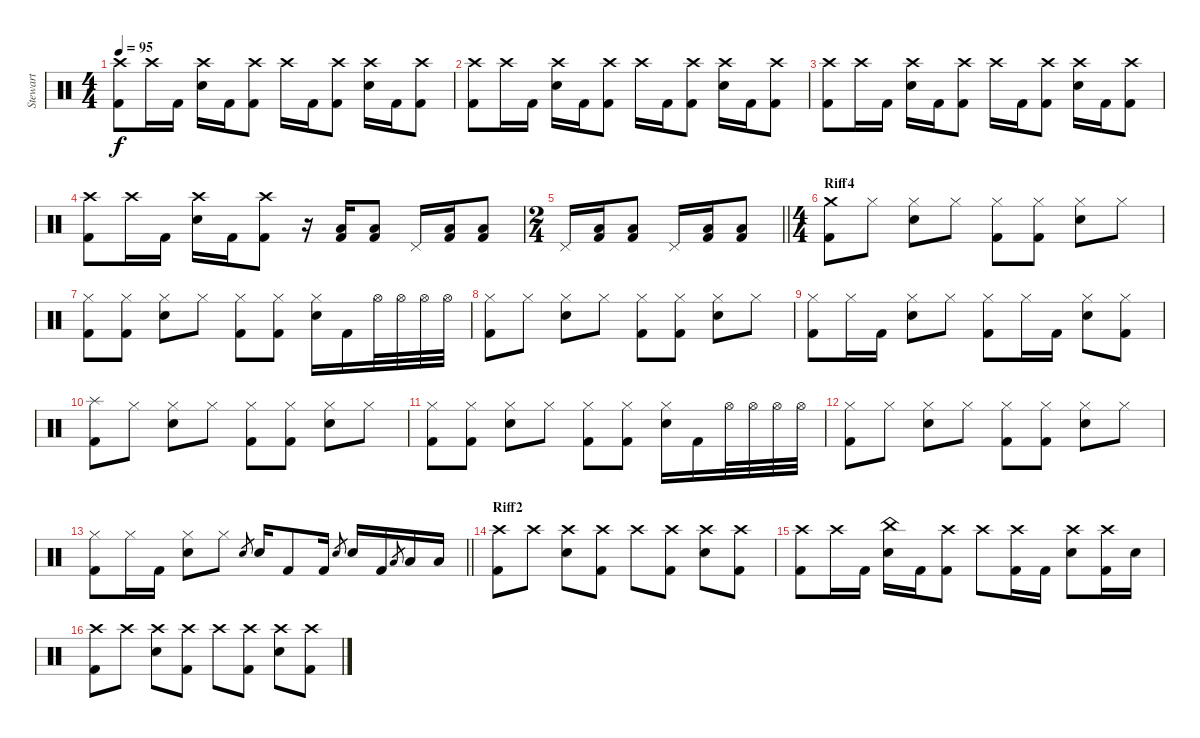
\track ("Stewart" "Stewart") {instrument percussion}
\staff {score}
\articulation defaults
\ts (4 4)
\tempo 95
\clef neutral
\ks c
("Crash high (hit)" "Kick (hit) 2").8{dy f} "Crash high (hit)".16 "Kick (hit) 2".16 ("Crash high (hit)" "Electric Snare (hit)").16 "Kick (hit) 2".16 ("Crash high (hit)" "Kick (hit) 2").8 "Crash high (hit)".16 "Kick (hit) 2".16 ("Crash high (hit)" "Kick (hit) 2").8 ("Crash high (hit)" "Electric Snare (hit)").16 "Kick (hit) 2".16 ("Crash high (hit)" "Kick (hit) 2").8 |
("Crash high (hit)" "Kick (hit) 2").8 "Crash high (hit)".16 "Kick (hit) 2".16 ("Crash high (hit)" "Electric Snare (hit)").16 "Kick (hit) 2".16 ("Crash high (hit)" "Kick (hit) 2").8 "Crash high (hit)".16 "Kick (hit) 2".16 ("Crash high (hit)" "Kick (hit) 2").8 ("Crash high (hit)" "Electric Snare (hit)").16 "Kick (hit) 2".16 ("Crash high (hit)" "Kick (hit) 2").8 |
("Crash high (hit)" "Kick (hit) 2").8 "Crash high (hit)".16 "Kick (hit) 2".16 ("Crash high (hit)" "Electric Snare (hit)").16 "Kick (hit) 2".16 ("Crash high (hit)" "Kick (hit) 2").8 "Crash high (hit)".16 "Kick (hit) 2".16 ("Crash high (hit)" "Kick (hit) 2").8 ("Crash high (hit)" "Electric Snare (hit)").16 "Kick (hit) 2".16 ("Crash high (hit)" "Kick (hit) 2").8 |
("Crash high (hit)" "Kick (hit) 2").8 "Crash high (hit)".16 "Kick (hit) 2".16 ("Crash high (hit)" "Electric Snare (hit)").16 "Kick (hit) 2".16 ("Crash high (hit)" "Kick (hit) 2").8 r.16 ("Low Tom (hit)" "Kick (hit) 2").16 ("Low Tom (hit)" "Kick (hit) 2").8 "Pedal Hi-Hat (hit)".16 ("Low Tom (hit)" "Kick (hit) 2").16 ("Low Tom (hit)" "Kick (hit) 2").8 |
\ts (2 4)
\barLineRight lightlight "Pedal Hi-Hat (hit)".16
("Low Tom (hit)" "Kick (hit) 2").16 ("Low Tom (hit)" "Kick (hit) 2").8 "Pedal Hi-Hat (hit)".16 ("Low Tom (hit)" "Kick (hit) 2").16 ("Low Tom (hit)" "Kick (hit) 2").8 |
\ts (4 4)
\section ("" "Riff4")
("Crash medium (hit)" "Kick (hit) 2").8 "Hi-Hat (closed)".8 ("Hi-Hat (closed)" "Electric Snare (hit)").8 "Hi-Hat (closed)".8 ("Hi-Hat (closed)" "Kick (hit) 2").8 ("Hi-Hat (closed)" "Kick (hit) 2").8 ("Hi-Hat (closed)" "Electric Snare (hit)").8 "Hi-Hat (closed)".8 |
("Hi-Hat (closed)" "Kick (hit) 2").8 ("Hi-Hat (closed)" "Kick (hit) 2").8 ("Hi-Hat (closed)" "Electric Snare (hit)").8 "Hi-Hat (closed)".8 ("Hi-Hat (closed)" "Kick (hit) 2").8 ("Hi-Hat (closed)" "Kick (hit) 2").8 ("Hi-Hat (closed)" "Electric Snare (hit)").16 "Kick (hit) 2".16 "Hi-Hat (open)".32 "Hi-Hat (open)".32 "Hi-Hat (open)".32 "Hi-Hat (open)".32 |
("Hi-Hat (closed)" "Kick (hit) 2").8 "Hi-Hat (closed)".8 ("Hi-Hat (closed)" "Electric Snare (hit)").8 "Hi-Hat (closed)".8 ("Hi-Hat (closed)" "Kick (hit) 2").8 ("Hi-Hat (closed)" "Kick (hit) 2").8 ("Hi-Hat (closed)" "Electric Snare (hit)").8 "Hi-Hat (closed)".8 |
("Hi-Hat (closed)" "Kick (hit) 2").8 "Hi-Hat (closed)".16 "Kick (hit) 2".16 ("Hi-Hat (closed)" "Electric Snare (hit)").8 "Hi-Hat (closed)".8 ("Hi-Hat (closed)" "Kick (hit) 2").8 "Hi-Hat (closed)".16 "Kick (hit) 2".16 ("Hi-Hat (closed)" "Electric Snare (hit)").8 ("Hi-Hat (closed)" "Kick (hit) 2").8 |
("Splash (hit)" "Kick (hit) 2").8 "Hi-Hat (closed)".8 ("Hi-Hat (closed)" "Electric Snare (hit)").8 "Hi-Hat (closed)".8 ("Hi-Hat (closed)" "Kick (hit) 2").8 ("Hi-Hat (closed)" "Kick (hit) 2").8 ("Hi-Hat (closed)" "Electric Snare (hit)").8 "Hi-Hat (closed)".8 |
("Hi-Hat (closed)" "Kick (hit) 2").8 ("Hi-Hat (closed)" "Kick (hit) 2").8 ("Hi-Hat (closed)" "Electric Snare (hit)").8 "Hi-Hat (closed)".8 ("Hi-Hat (closed)" "Kick (hit) 2").8 ("Hi-Hat (closed)" "Kick (hit) 2").8 ("Hi-Hat (closed)" "Electric Snare (hit)").16 "Kick (hit) 2".16 "Hi-Hat (open)".32 "Hi-Hat (open)".32 "Hi-Hat (open)".32 "Hi-Hat (open)".32 |
("Hi-Hat (closed)" "Kick (hit) 2").8 "Hi-Hat (closed)".8 ("Hi-Hat (closed)" "Electric Snare (hit)").8 "Hi-Hat (closed)".8 ("Hi-Hat (closed)" "Kick (hit) 2").8 ("Hi-Hat (closed)" "Kick (hit) 2").8 ("Hi-Hat (closed)" "Electric Snare (hit)").8 "Hi-Hat (closed)".8 |
\barLineRight lightlight
("Hi-Hat (closed)" "Kick (hit) 2").8 "Hi-Hat (closed)".16 "Kick (hit) 2".16 ("Hi-Hat (closed)" "Electric Snare (hit)").8 "Hi-Hat (closed)".8 "Electric Snare (hit)".8{gr} "Electric Snare (hit)".16 "Kick (hit) 2".8 "Kick (hit) 2".16 "Electric Snare (hit)".8{gr} "Electric Snare (hit)".16 "Kick (hit) 2".16 "Low Tom (hit)".8{gr} "Low Tom (hit)".16 "Low Tom (hit)".16 |
\section ("" "Riff2")
("Crash high (hit)" "Kick (hit) 2").8 "Crash high (hit)".8 ("Crash high (hit)" "Electric Snare (hit)").8 ("Crash high (hit)" "Kick (hit) 2").8 "Crash high (hit)".8 ("Crash high (hit)" "Kick (hit) 2").8 ("Crash high (hit)" "Electric Snare (hit)").8 ("Crash high (hit)" "Kick (hit) 2").8 |
("Crash high (hit)" "Kick (hit) 2").8 "Crash high (hit)".16 "Kick (hit) 2".16 ("China (hit)" "Electric Snare (hit)").16 "Kick (hit) 2".16 ("Crash high (hit)" "Kick (hit) 2").8 "Crash high (hit)".8 ("Crash high (hit)" "Kick (hit) 2").16 "Kick (hit) 2".16 ("Crash high (hit)" "Electric Snare (hit)").8 ("Crash high (hit)" "Kick (hit) 2").16 "Electric Snare (hit)".16 |
("Crash high (hit)" "Kick (hit) 2").8 "Crash high (hit)".8 ("Crash high (hit)" "Electric Snare (hit)").8 ("Crash high (hit)" "Kick (hit) 2").8 "Crash high (hit)".8 ("Crash high (hit)" "Kick (hit) 2").8 ("Crash high (hit)" "Electric Snare (hit)").8 ("Crash high (hit)" "Kick (hit) 2").8
